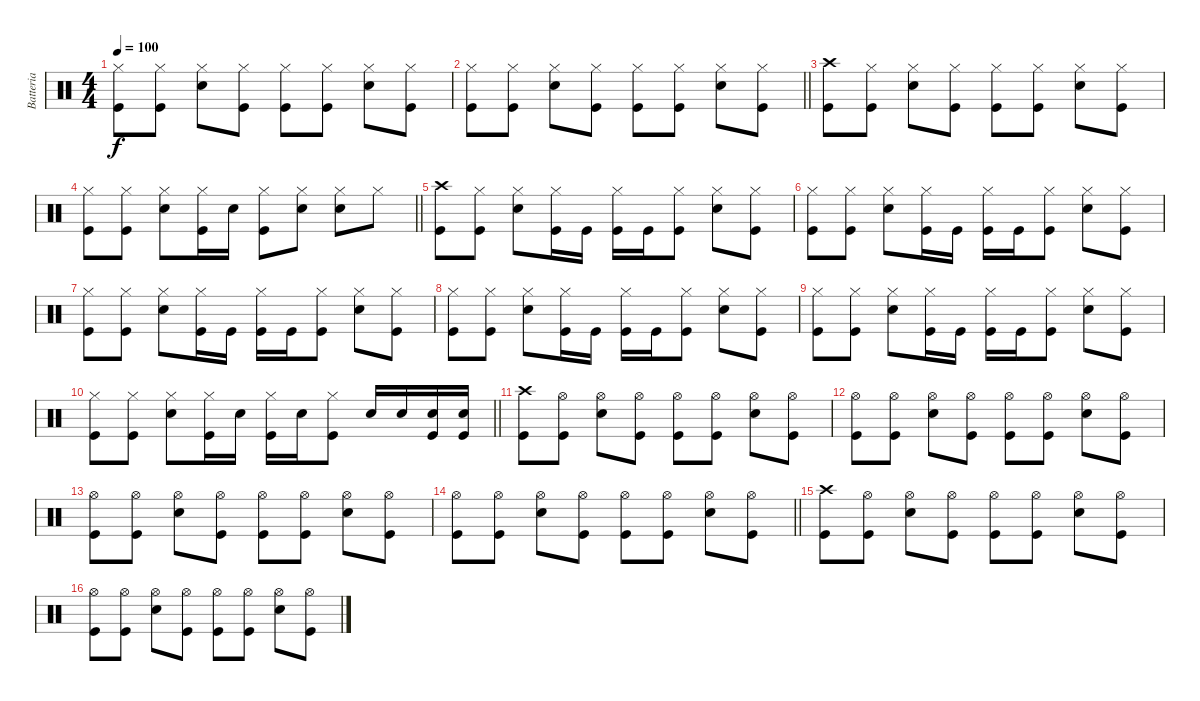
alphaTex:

\track ("Batteria" "Batteria") {instrument percussion}
\staff {score}
\articulation defaults
\ts (4 4)
\tempo 100
\clef neutral
\ks c
("Hi-Hat (closed)" "Kick (hit)").8{dy f} ("Hi-Hat (closed)" "Kick (hit)").8 ("Snare (hit) 2" "Hi-Hat (closed)").8 ("Hi-Hat (closed)" "Kick (hit)").8 ("Hi-Hat (closed)" "Kick (hit)").8 ("Hi-Hat (closed)" "Kick (hit)").8 ("Snare (hit) 2" "Hi-Hat (closed)").8 ("Hi-Hat (closed)" "Kick (hit)").8 |
\barLineRight lightlight
("Hi-Hat (closed)" "Kick (hit)").8 ("Hi-Hat (closed)" "Kick (hit)").8 ("Snare (hit) 2" "Hi-Hat (closed)").8 ("Hi-Hat (closed)" "Kick (hit)").8 ("Hi-Hat (closed)" "Kick (hit)").8 ("Hi-Hat (closed)" "Kick (hit)").8 ("Snare (hit) 2" "Hi-Hat (closed)").8 ("Hi-Hat (closed)" "Kick (hit)").8 |
("Crash high (hit)" "Kick (hit)").8 ("Hi-Hat (closed)" "Kick (hit)").8 ("Snare (hit) 2" "Hi-Hat (closed)").8 ("Hi-Hat (closed)" "Kick (hit)").8 ("Hi-Hat (closed)" "Kick (hit)").8 ("Hi-Hat (closed)" "Kick (hit)").8 ("Snare (hit) 2" "Hi-Hat (closed)").8 ("Hi-Hat (closed)" "Kick (hit)").8 |
\barLineRight lightlight
("Hi-Hat (closed)" "Kick (hit)").8 ("Hi-Hat (closed)" "Kick (hit)").8 ("Snare (hit) 2" "Hi-Hat (closed)").8 ("Hi-Hat (closed)" "Kick (hit)").16 "Snare (hit) 2".16 ("Kick (hit)" "Hi-Hat (closed)").8 ("Snare (hit) 2" "Hi-Hat (closed)").8 ("Snare (hit) 2" "Hi-Hat (closed)").8 "Hi-Hat (closed)".8 |
("Crash high (hit)" "Kick (hit)").8 ("Hi-Hat (closed)" "Kick (hit)").8 ("Snare (hit) 2" "Hi-Hat (closed)").8 ("Hi-Hat (closed)" "Kick (hit)").16 "Kick (hit)".16 ("Kick (hit)" "Hi-Hat (closed)").16 "Kick (hit)".16 ("Kick (hit)" "Hi-Hat (closed)").8 ("Hi-Hat (closed)" "Snare (hit) 2").8 ("Kick (hit)" "Hi-Hat (closed)").8 |
("Hi-Hat (closed)" "Kick (hit)").8 ("Hi-Hat (closed)" "Kick (hit)").8 ("Snare (hit) 2" "Hi-Hat (closed)").8 ("Hi-Hat (closed)" "Kick (hit)").16 "Kick (hit)".16 ("Kick (hit)" "Hi-Hat (closed)").16 "Kick (hit)".16 ("Kick (hit)" "Hi-Hat (closed)").8 ("Hi-Hat (closed)" "Snare (hit) 2").8 ("Kick (hit)" "Hi-Hat (closed)").8 |
("Hi-Hat (closed)" "Kick (hit)").8 ("Hi-Hat (closed)" "Kick (hit)").8 ("Snare (hit) 2" "Hi-Hat (closed)").8 ("Hi-Hat (closed)" "Kick (hit)").16 "Kick (hit)".16 ("Kick (hit)" "Hi-Hat (closed)").16 "Kick (hit)".16 ("Kick (hit)" "Hi-Hat (closed)").8 ("Hi-Hat (closed)" "Snare (hit) 2").8 ("Kick (hit)" "Hi-Hat (closed)").8 |
("Hi-Hat (closed)" "Kick (hit)").8 ("Hi-Hat (closed)" "Kick (hit)").8 ("Snare (hit) 2" "Hi-Hat (closed)").8 ("Hi-Hat (closed)" "Kick (hit)").16 "Kick (hit)".16 ("Kick (hit)" "Hi-Hat (closed)").16 "Kick (hit)".16 ("Kick (hit)" "Hi-Hat (closed)").8 ("Hi-Hat (closed)" "Snare (hit) 2").8 ("Kick (hit)" "Hi-Hat (closed)").8 |
("Hi-Hat (closed)" "Kick (hit)").8 ("Hi-Hat (closed)" "Kick (hit)").8 ("Snare (hit) 2" "Hi-Hat (closed)").8 ("Hi-Hat (closed)" "Kick (hit)").16 "Kick (hit)".16 ("Kick (hit)" "Hi-Hat (closed)").16 "Kick (hit)".16 ("Kick (hit)" "Hi-Hat (closed)").8 ("Hi-Hat (closed)" "Snare (hit) 2").8 ("Kick (hit)" "Hi-Hat (closed)").8 |
\barLineRight lightlight
("Hi-Hat (closed)" "Kick (hit)").8 ("Hi-Hat (closed)" "Kick (hit)").8 ("Snare (hit) 2" "Hi-Hat (closed)").8 ("Hi-Hat (closed)" "Kick (hit)").16 "Snare (hit) 2".16 ("Kick (hit)" "Hi-Hat (closed)").16 "Snare (hit) 2".16 ("Kick (hit)" "Hi-Hat (closed)").8 "Snare (hit) 2".16 "Snare (hit) 2".16 ("Snare (hit) 2" "Kick (hit)").16 ("Snare (hit) 2" "Kick (hit)").16 |
("Crash high (hit)" "Kick (hit)").8 ("Hi-Hat (open)" "Kick (hit)").8 ("Snare (hit) 2" "Hi-Hat (open)").8 ("Hi-Hat (open)" "Kick (hit)").8 ("Hi-Hat (open)" "Kick (hit)").8 ("Hi-Hat (open)" "Kick (hit)").8 ("Snare (hit) 2" "Hi-Hat (open)").8 ("Hi-Hat (open)" "Kick (hit)").8 |
("Hi-Hat (open)" "Kick (hit)").8 ("Hi-Hat (open)" "Kick (hit)").8 ("Snare (hit) 2" "Hi-Hat (open)").8 ("Hi-Hat (open)" "Kick (hit)").8 ("Hi-Hat (open)" "Kick (hit)").8 ("Hi-Hat (open)" "Kick (hit)").8 ("Snare (hit) 2" "Hi-Hat (open)").8 ("Hi-Hat (open)" "Kick (hit)").8 |
("Hi-Hat (open)" "Kick (hit)").8 ("Hi-Hat (open)" "Kick (hit)").8 ("Snare (hit) 2" "Hi-Hat (open)").8 ("Hi-Hat (open)" "Kick (hit)").8 ("Hi-Hat (open)" "Kick (hit)").8 ("Hi-Hat (open)" "Kick (hit)").8 ("Snare (hit) 2" "Hi-Hat (open)").8 ("Hi-Hat (open)" "Kick (hit)").8 |
\barLineRight lightlight
("Hi-Hat (open)" "Kick (hit)").8 ("Hi-Hat (open)" "Kick (hit)").8 ("Snare (hit) 2" "Hi-Hat (open)").8 ("Hi-Hat (open)" "Kick (hit)").8 ("Hi-Hat (open)" "Kick (hit)").8 ("Hi-Hat (open)" "Kick (hit)").8 ("Snare (hit) 2" "Hi-Hat (open)").8 ("Hi-Hat (open)" "Kick (hit)").8 |
("Crash high (hit)" "Kick (hit)").8 ("Hi-Hat (open)" "Kick (hit)").8 ("Snare (hit) 2" "Hi-Hat (open)").8 ("Hi-Hat (open)" "Kick (hit)").8 ("Hi-Hat (open)" "Kick (hit)").8 ("Hi-Hat (open)" "Kick (hit)").8 ("Snare (hit) 2" "Hi-Hat (open)").8 ("Hi-Hat (open)" "Kick (hit)").8 |
("Hi-Hat (open)" "Kick (hit)").8 ("Hi-Hat (open)" "Kick (hit)").8 ("Snare (hit) 2" "Hi-Hat (open)").8 ("Hi-Hat (open)" "Kick (hit)").8 ("Hi-Hat (open)" "Kick (hit)").8 ("Hi-Hat (open)" "Kick (hit)").8 ("Snare (hit) 2" "Hi-Hat (open)").8 ("Hi-Hat (open)" "Kick (hit)").8
